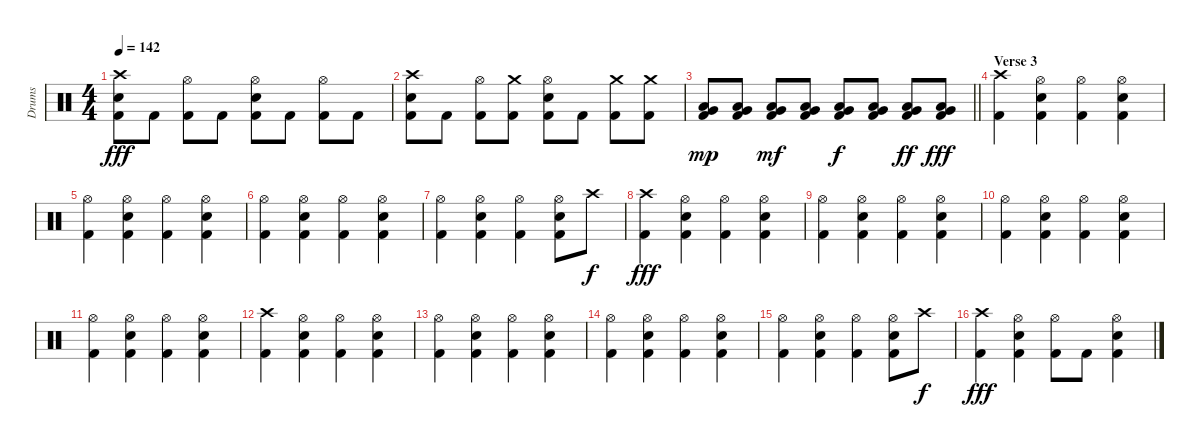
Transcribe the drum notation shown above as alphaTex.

\track ("Drums" "Drums") {instrument percussion}
\staff {score}
\articulation defaults
\ts (4 4)
\tempo 142
\clef neutral
\ks c
("Crash high (hit)" "Snare (hit) 2" "Kick (hit) 2").8{dy fff} "Kick (hit) 2".8 ("Hi-Hat (open)" "Kick (hit) 2").8 "Kick (hit) 2".8 ("Hi-Hat (open)" "Snare (hit) 2" "Kick (hit) 2").8 "Kick (hit) 2".8 ("Hi-Hat (open)" "Kick (hit) 2").8 "Kick (hit) 2".8 |
("Crash high (hit)" "Snare (hit) 2" "Kick (hit) 2").8 "Kick (hit) 2".8 ("Hi-Hat (open)" "Kick (hit) 2").8 ("Crash medium (hit)" "Kick (hit) 2").8 ("Hi-Hat (open)" "Snare (hit) 2" "Kick (hit) 2").8 "Kick (hit) 2".8 ("Crash medium (hit)" "Kick (hit) 2").8 ("Crash medium (hit)" "Kick (hit) 2").8 |
\barLineRight lightlight
("Low Floor Tom (hit)" "Very Low Tom (hit)" "Kick (hit) 2").8{dy mp} ("Low Floor Tom (hit)" "Very Low Tom (hit)" "Kick (hit) 2").8 ("Low Floor Tom (hit)" "Very Low Tom (hit)" "Kick (hit) 2").8{dy mf} ("Low Floor Tom (hit)" "Very Low Tom (hit)" "Kick (hit) 2").8 ("Low Floor Tom (hit)" "Very Low Tom (hit)" "Kick (hit) 2").8{dy f} ("Low Floor Tom (hit)" "Very Low Tom (hit)" "Kick (hit) 2").8 ("Low Floor Tom (hit)" "Very Low Tom (hit)" "Kick (hit) 2").8{dy ff} ("Low Floor Tom (hit)" "Very Low Tom (hit)" "Kick (hit) 2").8{dy fff} |
\section ("" "Verse 3")
("Crash high (hit)" "Kick (hit) 2").4 ("Hi-Hat (open)" "Snare (hit) 2" "Kick (hit) 2").4 ("Hi-Hat (open)" "Kick (hit) 2").4 ("Hi-Hat (open)" "Snare (hit) 2" "Kick (hit) 2").4 |
("Hi-Hat (open)" "Kick (hit) 2").4 ("Hi-Hat (open)" "Snare (hit) 2" "Kick (hit) 2").4 ("Hi-Hat (open)" "Kick (hit) 2").4 ("Hi-Hat (open)" "Snare (hit) 2" "Kick (hit) 2").4 |
("Hi-Hat (open)" "Kick (hit) 2").4 ("Hi-Hat (open)" "Snare (hit) 2" "Kick (hit) 2").4 ("Hi-Hat (open)" "Kick (hit) 2").4 ("Hi-Hat (open)" "Snare (hit) 2" "Kick (hit) 2").4 |
("Hi-Hat (open)" "Kick (hit) 2").4 ("Hi-Hat (open)" "Snare (hit) 2" "Kick (hit) 2").4 ("Hi-Hat (open)" "Kick (hit) 2").4 ("Hi-Hat (open)" "Snare (hit) 2" "Kick (hit) 2").8 "Crash high (hit)".8{dy f} |
("Crash high (hit)" "Kick (hit) 2").4{dy fff} ("Hi-Hat (open)" "Snare (hit) 2" "Kick (hit) 2").4 ("Hi-Hat (open)" "Kick (hit) 2").4 ("Hi-Hat (open)" "Snare (hit) 2" "Kick (hit) 2").4 |
("Hi-Hat (open)" "Kick (hit) 2").4 ("Hi-Hat (open)" "Snare (hit) 2" "Kick (hit) 2").4 ("Hi-Hat (open)" "Kick (hit) 2").4 ("Hi-Hat (open)" "Snare (hit) 2" "Kick (hit) 2").4 |
("Hi-Hat (open)" "Kick (hit) 2").4 ("Hi-Hat (open)" "Snare (hit) 2" "Kick (hit) 2").4 ("Hi-Hat (open)" "Kick (hit) 2").4 ("Hi-Hat (open)" "Snare (hit) 2" "Kick (hit) 2").4 |
("Hi-Hat (open)" "Kick (hit) 2").4 ("Hi-Hat (open)" "Snare (hit) 2" "Kick (hit) 2").4 ("Hi-Hat (open)" "Kick (hit) 2").4 ("Hi-Hat (open)" "Snare (hit) 2" "Kick (hit) 2").4 |
("Crash high (hit)" "Kick (hit) 2").4 ("Hi-Hat (open)" "Snare (hit) 2" "Kick (hit) 2").4 ("Hi-Hat (open)" "Kick (hit) 2").4 ("Hi-Hat (open)" "Snare (hit) 2" "Kick (hit) 2").4 |
("Hi-Hat (open)" "Kick (hit) 2").4 ("Hi-Hat (open)" "Snare (hit) 2" "Kick (hit) 2").4 ("Hi-Hat (open)" "Kick (hit) 2").4 ("Hi-Hat (open)" "Snare (hit) 2" "Kick (hit) 2").4 |
("Hi-Hat (open)" "Kick (hit) 2").4 ("Hi-Hat (open)" "Snare (hit) 2" "Kick (hit) 2").4 ("Hi-Hat (open)" "Kick (hit) 2").4 ("Hi-Hat (open)" "Snare (hit) 2" "Kick (hit) 2").4 |
("Hi-Hat (open)" "Kick (hit) 2").4 ("Hi-Hat (open)" "Snare (hit) 2" "Kick (hit) 2").4 ("Hi-Hat (open)" "Kick (hit) 2").4 ("Hi-Hat (open)" "Snare (hit) 2" "Kick (hit) 2").8 "Crash high (hit)".8{dy f} |
("Crash high (hit)" "Kick (hit) 2").4{dy fff} ("Hi-Hat (open)" "Snare (hit) 2" "Kick (hit) 2").4 ("Hi-Hat (open)" "Kick (hit) 2").8 "Kick (hit) 2".8 ("Hi-Hat (open)" "Snare (hit) 2" "Kick (hit) 2").4
